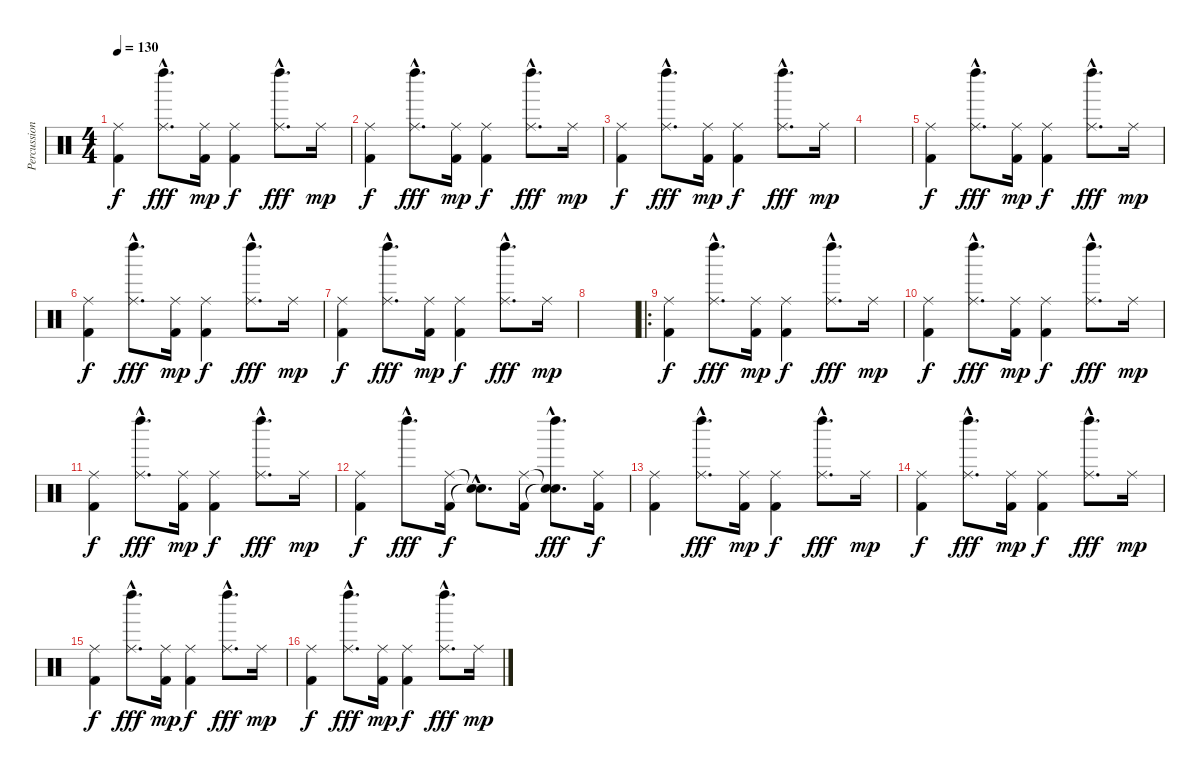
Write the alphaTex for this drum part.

\track ("Percussion" "Percussion") {instrument percussion}
\staff {score}
\articulation defaults
\ts (4 4)
\tempo 130
\clef neutral
\ks c
("Ride (middle)" "Kick (hit) 2").4{dy f} ("Ride (middle)"{hac} "Left Maraca (hit)"{hac}).8{d dy fff} ("Ride (middle)" "Kick (hit) 2").16{dy mp} ("Ride (middle)" "Kick (hit) 2").4{dy f} ("Ride (middle)"{hac} "Left Maraca (hit)"{hac}).8{d dy fff} "Ride (middle)".16{dy mp} |
("Ride (middle)" "Kick (hit) 2").4{dy f} ("Ride (middle)"{hac} "Left Maraca (hit)"{hac}).8{d dy fff} ("Ride (middle)" "Kick (hit) 2").16{dy mp} ("Ride (middle)" "Kick (hit) 2").4{dy f} ("Ride (middle)"{hac} "Left Maraca (hit)"{hac}).8{d dy fff} "Ride (middle)".16{dy mp} |
("Ride (middle)" "Kick (hit) 2").4{dy f} ("Ride (middle)"{hac} "Left Maraca (hit)"{hac}).8{d dy fff} ("Ride (middle)" "Kick (hit) 2").16{dy mp} ("Ride (middle)" "Kick (hit) 2").4{dy f} ("Ride (middle)"{hac} "Left Maraca (hit)"{hac}).8{d dy fff} "Ride (middle)".16{dy mp} |
|
("Ride (middle)" "Kick (hit) 2").4{dy f} ("Ride (middle)"{hac} "Left Maraca (hit)"{hac}).8{d dy fff} ("Ride (middle)" "Kick (hit) 2").16{dy mp} ("Ride (middle)" "Kick (hit) 2").4{dy f} ("Ride (middle)"{hac} "Left Maraca (hit)"{hac}).8{d dy fff} "Ride (middle)".16{dy mp} |
("Ride (middle)" "Kick (hit) 2").4{dy f} ("Ride (middle)"{hac} "Left Maraca (hit)"{hac}).8{d dy fff} ("Ride (middle)" "Kick (hit) 2").16{dy mp} ("Ride (middle)" "Kick (hit) 2").4{dy f} ("Ride (middle)"{hac} "Left Maraca (hit)"{hac}).8{d dy fff} "Ride (middle)".16{dy mp} |
("Ride (middle)" "Kick (hit) 2").4{dy f} ("Ride (middle)"{hac} "Left Maraca (hit)"{hac}).8{d dy fff} ("Ride (middle)" "Kick (hit) 2").16{dy mp} ("Ride (middle)" "Kick (hit) 2").4{dy f} ("Ride (middle)"{hac} "Left Maraca (hit)"{hac}).8{d dy fff} "Ride (middle)".16{dy mp} |
|
\ro
("Ride (middle)" "Kick (hit) 2").4{dy f} ("Ride (middle)"{hac} "Left Maraca (hit)"{hac}).8{d dy fff} ("Ride (middle)" "Kick (hit) 2").16{dy mp} ("Ride (middle)" "Kick (hit) 2").4{dy f} ("Ride (middle)"{hac} "Left Maraca (hit)"{hac}).8{d dy fff} "Ride (middle)".16{dy mp} |
("Ride (middle)" "Kick (hit) 2").4{dy f} ("Ride (middle)"{hac} "Left Maraca (hit)"{hac}).8{d dy fff} ("Ride (middle)" "Kick (hit) 2").16{dy mp} ("Ride (middle)" "Kick (hit) 2").4{dy f} ("Ride (middle)"{hac} "Left Maraca (hit)"{hac}).8{d dy fff} "Ride (middle)".16{dy mp} |
("Ride (middle)" "Kick (hit) 2").4{dy f} ("Ride (middle)"{hac} "Left Maraca (hit)"{hac}).8{d dy fff} ("Ride (middle)" "Kick (hit) 2").16{dy mp} ("Ride (middle)" "Kick (hit) 2").4{dy f} ("Ride (middle)"{hac} "Left Maraca (hit)"{hac}).8{d dy fff} "Ride (middle)".16{dy mp} |
("Ride (middle)" "Kick (hit) 2").4{dy f} "Left Maraca (hit)"{hac}.8{d dy fff} ("Ride (middle)" "Kick (hit) 2").16{dy f} ("Snare (hit)"{hac t} "Snare (hit)"{hac t}).8{d} ("Ride (middle)" "Kick (hit) 2").16 ("Snare (hit)"{hac t} "Snare (hit)"{hac t} "Left Maraca (hit)"{hac}).8{d dy fff} ("Ride (middle)" "Kick (hit) 2").16{dy f} |
("Ride (middle)" "Kick (hit) 2").4 ("Ride (middle)"{hac} "Left Maraca (hit)"{hac}).8{d dy fff} ("Ride (middle)" "Kick (hit) 2").16{dy mp} ("Ride (middle)" "Kick (hit) 2").4{dy f} ("Ride (middle)"{hac} "Left Maraca (hit)"{hac}).8{d dy fff} "Ride (middle)".16{dy mp} |
("Ride (middle)" "Kick (hit) 2").4{dy f} ("Ride (middle)"{hac} "Left Maraca (hit)"{hac}).8{d dy fff} ("Ride (middle)" "Kick (hit) 2").16{dy mp} ("Ride (middle)" "Kick (hit) 2").4{dy f} ("Ride (middle)"{hac} "Left Maraca (hit)"{hac}).8{d dy fff} "Ride (middle)".16{dy mp} |
("Ride (middle)" "Kick (hit) 2").4{dy f} ("Ride (middle)"{hac} "Left Maraca (hit)"{hac}).8{d dy fff} ("Ride (middle)" "Kick (hit) 2").16{dy mp} ("Ride (middle)" "Kick (hit) 2").4{dy f} ("Ride (middle)"{hac} "Left Maraca (hit)"{hac}).8{d dy fff} "Ride (middle)".16{dy mp} |
("Ride (middle)" "Kick (hit) 2").4{dy f} ("Ride (middle)"{hac} "Left Maraca (hit)"{hac}).8{d dy fff} ("Ride (middle)" "Kick (hit) 2").16{dy mp} ("Ride (middle)" "Kick (hit) 2").4{dy f} ("Ride (middle)"{hac} "Left Maraca (hit)"{hac}).8{d dy fff} "Ride (middle)".16{dy mp}
